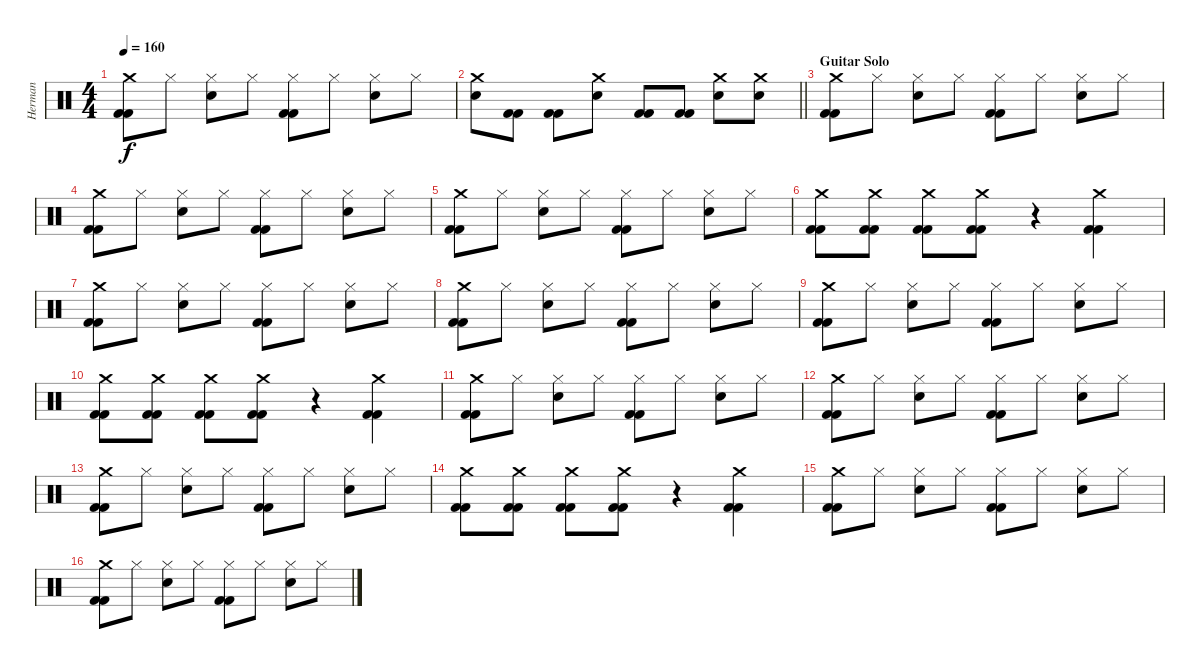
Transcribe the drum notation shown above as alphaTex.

\track ("Herman" "Herman") {instrument percussion}
\staff {score}
\articulation defaults
\ts (4 4)
\tempo 160
\clef neutral
\ks c
("Crash medium (hit)" "Kick (hit) 2" "Kick (hit) 2").8{dy f} "Hi-Hat (closed)".8 ("Electric Snare (hit)" "Hi-Hat (closed)").8 "Hi-Hat (closed)".8 ("Hi-Hat (closed)" "Kick (hit) 2" "Kick (hit) 2").8 "Hi-Hat (closed)".8 ("Electric Snare (hit)" "Hi-Hat (closed)").8 "Hi-Hat (closed)".8 |
\barLineRight lightlight
("Crash medium (hit)" "Electric Snare (hit)").8 ("Kick (hit) 2" "Kick (hit) 2").8 ("Kick (hit) 2" "Kick (hit) 2").8 ("Crash medium (hit)" "Electric Snare (hit)").8 ("Kick (hit) 2" "Kick (hit) 2").8 ("Kick (hit) 2" "Kick (hit) 2").8 ("Crash medium (hit)" "Electric Snare (hit)").8 ("Crash medium (hit)" "Electric Snare (hit)").8 |
\section ("" "Guitar Solo")
("Crash medium (hit)" "Kick (hit) 2" "Kick (hit) 2").8 "Hi-Hat (closed)".8 ("Electric Snare (hit)" "Hi-Hat (closed)").8 "Hi-Hat (closed)".8 ("Hi-Hat (closed)" "Kick (hit) 2" "Kick (hit) 2").8 "Hi-Hat (closed)".8 ("Electric Snare (hit)" "Hi-Hat (closed)").8 "Hi-Hat (closed)".8 |
("Crash medium (hit)" "Kick (hit) 2" "Kick (hit) 2").8 "Hi-Hat (closed)".8 ("Electric Snare (hit)" "Hi-Hat (closed)").8 "Hi-Hat (closed)".8 ("Hi-Hat (closed)" "Kick (hit) 2" "Kick (hit) 2").8 "Hi-Hat (closed)".8 ("Electric Snare (hit)" "Hi-Hat (closed)").8 "Hi-Hat (closed)".8 |
("Crash medium (hit)" "Kick (hit) 2" "Kick (hit) 2").8 "Hi-Hat (closed)".8 ("Electric Snare (hit)" "Hi-Hat (closed)").8 "Hi-Hat (closed)".8 ("Hi-Hat (closed)" "Kick (hit) 2" "Kick (hit) 2").8 "Hi-Hat (closed)".8 ("Electric Snare (hit)" "Hi-Hat (closed)").8 "Hi-Hat (closed)".8 |
("Crash medium (hit)" "Kick (hit) 2" "Kick (hit) 2").8 ("Kick (hit) 2" "Kick (hit) 2" "Crash medium (hit)").8 ("Crash medium (hit)" "Kick (hit) 2" "Kick (hit) 2").8 ("Kick (hit) 2" "Kick (hit) 2" "Crash medium (hit)").8 r.4 ("Crash medium (hit)" "Kick (hit) 2" "Kick (hit) 2").4 |
("Crash medium (hit)" "Kick (hit) 2" "Kick (hit) 2").8 "Hi-Hat (closed)".8 ("Electric Snare (hit)" "Hi-Hat (closed)").8 "Hi-Hat (closed)".8 ("Hi-Hat (closed)" "Kick (hit) 2" "Kick (hit) 2").8 "Hi-Hat (closed)".8 ("Electric Snare (hit)" "Hi-Hat (closed)").8 "Hi-Hat (closed)".8 |
("Crash medium (hit)" "Kick (hit) 2" "Kick (hit) 2").8 "Hi-Hat (closed)".8 ("Electric Snare (hit)" "Hi-Hat (closed)").8 "Hi-Hat (closed)".8 ("Hi-Hat (closed)" "Kick (hit) 2" "Kick (hit) 2").8 "Hi-Hat (closed)".8 ("Electric Snare (hit)" "Hi-Hat (closed)").8 "Hi-Hat (closed)".8 |
("Crash medium (hit)" "Kick (hit) 2" "Kick (hit) 2").8 "Hi-Hat (closed)".8 ("Electric Snare (hit)" "Hi-Hat (closed)").8 "Hi-Hat (closed)".8 ("Hi-Hat (closed)" "Kick (hit) 2" "Kick (hit) 2").8 "Hi-Hat (closed)".8 ("Electric Snare (hit)" "Hi-Hat (closed)").8 "Hi-Hat (closed)".8 |
("Crash medium (hit)" "Kick (hit) 2" "Kick (hit) 2").8 ("Kick (hit) 2" "Kick (hit) 2" "Crash medium (hit)").8 ("Crash medium (hit)" "Kick (hit) 2" "Kick (hit) 2").8 ("Kick (hit) 2" "Kick (hit) 2" "Crash medium (hit)").8 r.4 ("Crash medium (hit)" "Kick (hit) 2" "Kick (hit) 2").4 |
("Crash medium (hit)" "Kick (hit) 2" "Kick (hit) 2").8 "Hi-Hat (closed)".8 ("Electric Snare (hit)" "Hi-Hat (closed)").8 "Hi-Hat (closed)".8 ("Hi-Hat (closed)" "Kick (hit) 2" "Kick (hit) 2").8 "Hi-Hat (closed)".8 ("Electric Snare (hit)" "Hi-Hat (closed)").8 "Hi-Hat (closed)".8 |
("Crash medium (hit)" "Kick (hit) 2" "Kick (hit) 2").8 "Hi-Hat (closed)".8 ("Electric Snare (hit)" "Hi-Hat (closed)").8 "Hi-Hat (closed)".8 ("Hi-Hat (closed)" "Kick (hit) 2" "Kick (hit) 2").8 "Hi-Hat (closed)".8 ("Electric Snare (hit)" "Hi-Hat (closed)").8 "Hi-Hat (closed)".8 |
("Crash medium (hit)" "Kick (hit) 2" "Kick (hit) 2").8 "Hi-Hat (closed)".8 ("Electric Snare (hit)" "Hi-Hat (closed)").8 "Hi-Hat (closed)".8 ("Hi-Hat (closed)" "Kick (hit) 2" "Kick (hit) 2").8 "Hi-Hat (closed)".8 ("Electric Snare (hit)" "Hi-Hat (closed)").8 "Hi-Hat (closed)".8 |
("Crash medium (hit)" "Kick (hit) 2" "Kick (hit) 2").8 ("Kick (hit) 2" "Kick (hit) 2" "Crash medium (hit)").8 ("Crash medium (hit)" "Kick (hit) 2" "Kick (hit) 2").8 ("Kick (hit) 2" "Kick (hit) 2" "Crash medium (hit)").8 r.4 ("Crash medium (hit)" "Kick (hit) 2" "Kick (hit) 2").4 |
("Crash medium (hit)" "Kick (hit) 2" "Kick (hit) 2").8 "Hi-Hat (closed)".8 ("Electric Snare (hit)" "Hi-Hat (closed)").8 "Hi-Hat (closed)".8 ("Hi-Hat (closed)" "Kick (hit) 2" "Kick (hit) 2").8 "Hi-Hat (closed)".8 ("Electric Snare (hit)" "Hi-Hat (closed)").8 "Hi-Hat (closed)".8 |
("Crash medium (hit)" "Kick (hit) 2" "Kick (hit) 2").8 "Hi-Hat (closed)".8 ("Electric Snare (hit)" "Hi-Hat (closed)").8 "Hi-Hat (closed)".8 ("Hi-Hat (closed)" "Kick (hit) 2" "Kick (hit) 2").8 "Hi-Hat (closed)".8 ("Electric Snare (hit)" "Hi-Hat (closed)").8 "Hi-Hat (closed)".8
